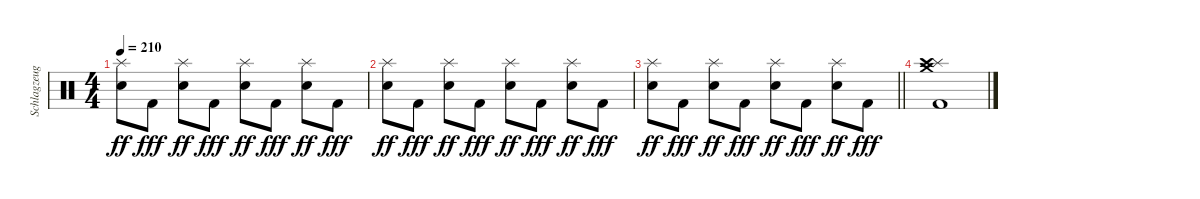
\track ("Schlagzeug" "Schlagzeug") {instrument percussion}
\staff {score}
\articulation defaults
\ts (4 4)
\tempo 210
\clef neutral
\ks c
("Splash (hit)" "Snare (hit) 2").8{dy ff} "Kick (hit) 2".8{dy fff} ("Splash (hit)" "Snare (hit) 2").8{dy ff} "Kick (hit) 2".8{dy fff} ("Splash (hit)" "Snare (hit) 2").8{dy ff} "Kick (hit) 2".8{dy fff} ("Splash (hit)" "Snare (hit) 2").8{dy ff} "Kick (hit) 2".8{dy fff} |
("Splash (hit)" "Snare (hit) 2").8{dy ff} "Kick (hit) 2".8{dy fff} ("Splash (hit)" "Snare (hit) 2").8{dy ff} "Kick (hit) 2".8{dy fff} ("Splash (hit)" "Snare (hit) 2").8{dy ff} "Kick (hit) 2".8{dy fff} ("Splash (hit)" "Snare (hit) 2").8{dy ff} "Kick (hit) 2".8{dy fff} |
\barLineRight lightlight
("Splash (hit)" "Snare (hit) 2").8{dy ff} "Kick (hit) 2".8{dy fff} ("Splash (hit)" "Snare (hit) 2").8{dy ff} "Kick (hit) 2".8{dy fff} ("Splash (hit)" "Snare (hit) 2").8{dy ff} "Kick (hit) 2".8{dy fff} ("Splash (hit)" "Snare (hit) 2").8{dy ff} "Kick (hit) 2".8{dy fff} |
("Splash (hit)" "Crash medium (hit)" "Crash high (hit)" "Kick (hit) 2").1
